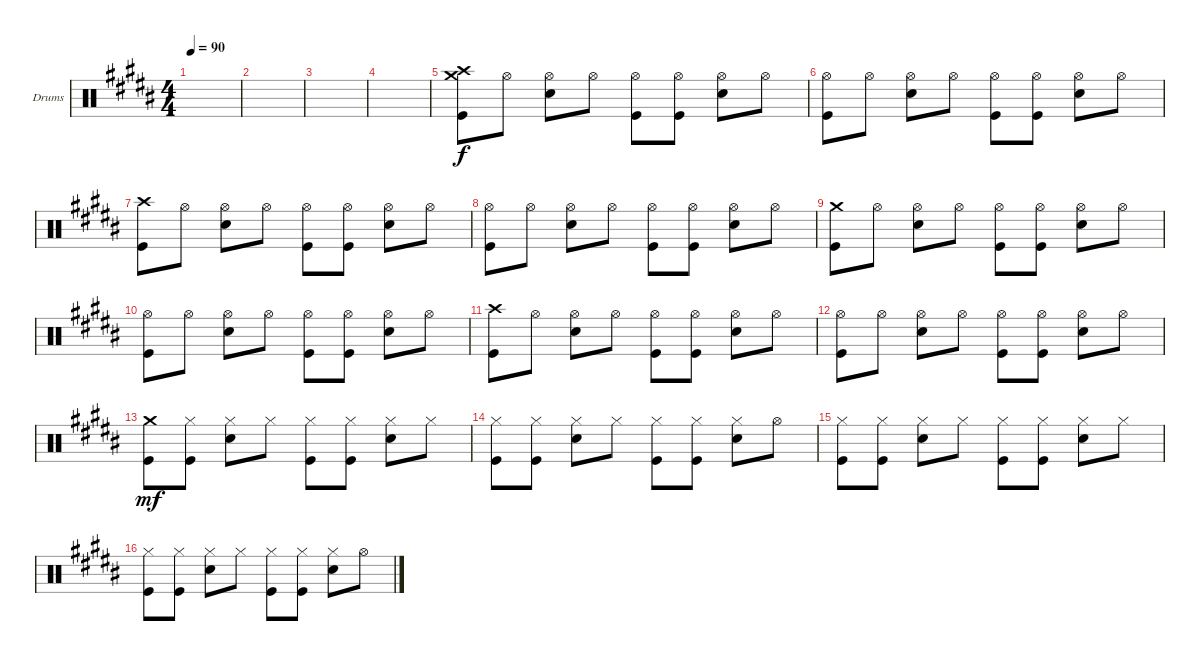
\defaultSystemsLayout 4
\bracketExtendMode groupsimilarinstruments
\firstSystemTrackNameOrientation horizontal
\otherSystemsTrackNameOrientation horizontal
\track ("Drumkit" "Drums") {instrument percussion}
\staff {score}
\articulation defaults
\ts (4 4)
\tempo 90
\clef neutral
\ks b
|
|
|
|
("Crash high (hit)" "Crash medium (hit)" "Kick (hit)").8 "Hi-Hat (open)".8 ("Hi-Hat (open)" "Snare (hit) 2").8 "Hi-Hat (open)".8 ("Hi-Hat (open)" "Kick (hit)").8 ("Hi-Hat (open)" "Kick (hit)").8 ("Hi-Hat (open)" "Snare (hit) 2").8 "Hi-Hat (open)".8 |
("Kick (hit)" "Hi-Hat (open)").8 "Hi-Hat (open)".8 ("Hi-Hat (open)" "Snare (hit) 2").8 "Hi-Hat (open)".8 ("Hi-Hat (open)" "Kick (hit)").8 ("Hi-Hat (open)" "Kick (hit)").8 ("Hi-Hat (open)" "Snare (hit) 2").8 "Hi-Hat (open)".8 |
("Crash high (hit)" "Kick (hit)").8 "Hi-Hat (open)".8 ("Hi-Hat (open)" "Snare (hit) 2").8 "Hi-Hat (open)".8 ("Hi-Hat (open)" "Kick (hit)").8 ("Hi-Hat (open)" "Kick (hit)").8 ("Hi-Hat (open)" "Snare (hit) 2").8 "Hi-Hat (open)".8 |
("Kick (hit)" "Hi-Hat (open)").8 "Hi-Hat (open)".8 ("Hi-Hat (open)" "Snare (hit) 2").8 "Hi-Hat (open)".8 ("Hi-Hat (open)" "Kick (hit)").8 ("Hi-Hat (open)" "Kick (hit)").8 ("Hi-Hat (open)" "Snare (hit) 2").8 "Hi-Hat (open)".8 |
("Crash medium (hit)" "Kick (hit)").8 "Hi-Hat (open)".8 ("Hi-Hat (open)" "Snare (hit) 2").8 "Hi-Hat (open)".8 ("Hi-Hat (open)" "Kick (hit)").8 ("Hi-Hat (open)" "Kick (hit)").8 ("Hi-Hat (open)" "Snare (hit) 2").8 "Hi-Hat (open)".8 |
("Kick (hit)" "Hi-Hat (open)").8 "Hi-Hat (open)".8 ("Hi-Hat (open)" "Snare (hit) 2").8 "Hi-Hat (open)".8 ("Hi-Hat (open)" "Kick (hit)").8 ("Hi-Hat (open)" "Kick (hit)").8 ("Hi-Hat (open)" "Snare (hit) 2").8 "Hi-Hat (open)".8 |
("Crash high (hit)" "Kick (hit)").8 "Hi-Hat (open)".8 ("Hi-Hat (open)" "Snare (hit) 2").8 "Hi-Hat (open)".8 ("Hi-Hat (open)" "Kick (hit)").8 ("Hi-Hat (open)" "Kick (hit)").8 ("Hi-Hat (open)" "Snare (hit) 2").8 "Hi-Hat (open)".8 |
("Kick (hit)" "Hi-Hat (open)").8 "Hi-Hat (open)".8 ("Hi-Hat (open)" "Snare (hit) 2").8 "Hi-Hat (open)".8 ("Hi-Hat (open)" "Kick (hit)").8 ("Hi-Hat (open)" "Kick (hit)").8 ("Hi-Hat (open)" "Snare (hit) 2").8 "Hi-Hat (open)".8 |
("Crash medium (hit)" "Kick (hit)").8{dy mf} ("Kick (hit)" "Hi-Hat (closed)").8 ("Snare (hit) 2" "Hi-Hat (closed)").8 "Hi-Hat (closed)".8 ("Hi-Hat (closed)" "Kick (hit)").8 ("Hi-Hat (closed)" "Kick (hit)").8 ("Hi-Hat (closed)" "Snare (hit) 2").8 "Hi-Hat (closed)".8 |
("Kick (hit)" "Hi-Hat (closed)").8 ("Kick (hit)" "Hi-Hat (closed)").8 ("Snare (hit) 2" "Hi-Hat (closed)").8 "Hi-Hat (closed)".8 ("Hi-Hat (closed)" "Kick (hit)").8 ("Hi-Hat (closed)" "Kick (hit)").8 ("Hi-Hat (closed)" "Snare (hit) 2").8 "Hi-Hat (open)".8 |
("Kick (hit)" "Hi-Hat (closed)").8 ("Kick (hit)" "Hi-Hat (closed)").8 ("Snare (hit) 2" "Hi-Hat (closed)").8 "Hi-Hat (closed)".8 ("Hi-Hat (closed)" "Kick (hit)").8 ("Hi-Hat (closed)" "Kick (hit)").8 ("Hi-Hat (closed)" "Snare (hit) 2").8 "Hi-Hat (closed)".8 |
("Kick (hit)" "Hi-Hat (closed)").8 ("Kick (hit)" "Hi-Hat (closed)").8 ("Snare (hit) 2" "Hi-Hat (closed)").8 "Hi-Hat (closed)".8 ("Hi-Hat (closed)" "Kick (hit)").8 ("Hi-Hat (closed)" "Kick (hit)").8 ("Hi-Hat (closed)" "Snare (hit) 2").8 "Hi-Hat (open)".8
